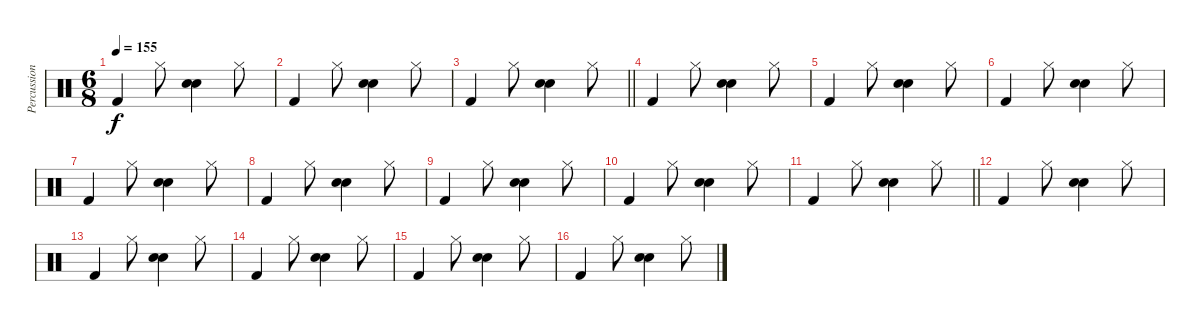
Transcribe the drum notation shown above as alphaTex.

\track ("Percussion" "Percussion") {instrument percussion}
\staff {score}
\articulation defaults
\ts (6 8)
\tempo 155
\clef neutral
\ks c "Kick (hit) 2".4{dy f} "Hi-Hat (closed)".8
("Hand Clap (hit)" "Electric Snare (hit)").4 "Hi-Hat (closed)".8 |
"Kick (hit) 2".4 "Hi-Hat (closed)".8 ("Hand Clap (hit)" "Electric Snare (hit)").4 "Hi-Hat (closed)".8 |
\barLineRight lightlight "Kick (hit) 2".4 "Hi-Hat (closed)".8
("Hand Clap (hit)" "Electric Snare (hit)").4 "Hi-Hat (closed)".8 |
"Kick (hit) 2".4 "Hi-Hat (closed)".8 ("Hand Clap (hit)" "Electric Snare (hit)").4 "Hi-Hat (closed)".8 |
"Kick (hit) 2".4 "Hi-Hat (closed)".8 ("Hand Clap (hit)" "Electric Snare (hit)").4 "Hi-Hat (closed)".8 |
"Kick (hit) 2".4 "Hi-Hat (closed)".8 ("Hand Clap (hit)" "Electric Snare (hit)").4 "Hi-Hat (closed)".8 |
"Kick (hit) 2".4 "Hi-Hat (closed)".8 ("Hand Clap (hit)" "Electric Snare (hit)").4 "Hi-Hat (closed)".8 |
"Kick (hit) 2".4 "Hi-Hat (closed)".8 ("Hand Clap (hit)" "Electric Snare (hit)").4 "Hi-Hat (closed)".8 |
"Kick (hit) 2".4 "Hi-Hat (closed)".8 ("Hand Clap (hit)" "Electric Snare (hit)").4 "Hi-Hat (closed)".8 |
"Kick (hit) 2".4 "Hi-Hat (closed)".8 ("Hand Clap (hit)" "Electric Snare (hit)").4 "Hi-Hat (closed)".8 |
\barLineRight lightlight "Kick (hit) 2".4 "Hi-Hat (closed)".8
("Hand Clap (hit)" "Electric Snare (hit)").4 "Hi-Hat (closed)".8 |
"Kick (hit) 2".4 "Hi-Hat (closed)".8 ("Hand Clap (hit)" "Electric Snare (hit)").4 "Hi-Hat (closed)".8 |
"Kick (hit) 2".4 "Hi-Hat (closed)".8 ("Hand Clap (hit)" "Electric Snare (hit)").4 "Hi-Hat (closed)".8 |
"Kick (hit) 2".4 "Hi-Hat (closed)".8 ("Hand Clap (hit)" "Electric Snare (hit)").4 "Hi-Hat (closed)".8 |
"Kick (hit) 2".4 "Hi-Hat (closed)".8 ("Hand Clap (hit)" "Electric Snare (hit)").4 "Hi-Hat (closed)".8 |
"Kick (hit) 2".4 "Hi-Hat (closed)".8 ("Hand Clap (hit)" "Electric Snare (hit)").4 "Hi-Hat (closed)".8
